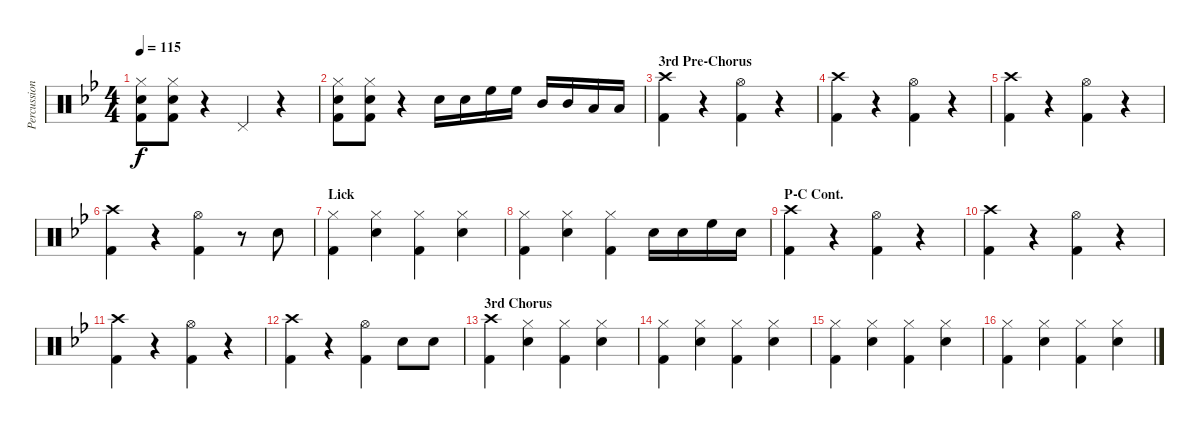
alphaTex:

\track ("Percussion" "Percussion") {instrument percussion}
\staff {score}
\articulation defaults
\ts (4 4)
\tempo 115
\clef neutral
\ks bb
("Hi-Hat (closed)" "Snare (hit) 2" "Kick (hit) 2").8{dy f} ("Hi-Hat (closed)" "Snare (hit) 2" "Kick (hit) 2").8 r.4 "Pedal Hi-Hat (hit)".4 r.4 |
("Hi-Hat (closed)" "Snare (hit) 2" "Kick (hit) 2").8 ("Hi-Hat (closed)" "Snare (hit) 2" "Kick (hit) 2").8 r.4 "Snare (hit) 2".16 "Snare (hit) 2".16 "High Floor Tom (hit)".16 "High Floor Tom (hit)".16 "Mid Tom (hit)".16 "Mid Tom (hit)".16 "Low Tom (hit)".16 "Low Tom (hit)".16 |
\section ("" "3rd Pre-Chorus")
("Crash high (hit)" "Kick (hit) 2").4 r.4 ("Hi-Hat (open)" "Kick (hit) 2").4 r.4 |
("Crash high (hit)" "Kick (hit) 2").4 r.4 ("Hi-Hat (open)" "Kick (hit) 2").4 r.4 |
("Crash high (hit)" "Kick (hit) 2").4 r.4 ("Hi-Hat (open)" "Kick (hit) 2").4 r.4 |
("Crash high (hit)" "Kick (hit) 2").4 r.4 ("Hi-Hat (open)" "Kick (hit) 2").4 r.8 "Snare (hit) 2".8 |
\section ("" "Lick")
("Hi-Hat (closed)" "Kick (hit) 2").4 ("Hi-Hat (closed)" "Snare (hit) 2").4 ("Hi-Hat (closed)" "Kick (hit) 2").4 ("Hi-Hat (closed)" "Snare (hit) 2").4 |
("Hi-Hat (closed)" "Kick (hit) 2").4 ("Hi-Hat (closed)" "Snare (hit) 2").4 ("Hi-Hat (closed)" "Kick (hit) 2").4 "Snare (hit) 2".16 "Snare (hit) 2".16 "High Floor Tom (hit)".16 "Snare (hit) 2".16 |
\section ("" "P-C Cont.")
("Crash high (hit)" "Kick (hit) 2").4 r.4 ("Hi-Hat (open)" "Kick (hit) 2").4 r.4 |
("Crash high (hit)" "Kick (hit) 2").4 r.4 ("Hi-Hat (open)" "Kick (hit) 2").4 r.4 |
("Crash high (hit)" "Kick (hit) 2").4 r.4 ("Hi-Hat (open)" "Kick (hit) 2").4 r.4 |
("Crash high (hit)" "Kick (hit) 2").4 r.4 ("Hi-Hat (open)" "Kick (hit) 2").4 "Snare (hit) 2".8 "Snare (hit) 2".8 |
\section ("" "3rd Chorus")
("Crash high (hit)" "Kick (hit) 2").4 ("Hi-Hat (closed)" "Snare (hit) 2").4 ("Hi-Hat (closed)" "Kick (hit) 2").4 ("Hi-Hat (closed)" "Snare (hit) 2").4 |
("Hi-Hat (closed)" "Kick (hit) 2").4 ("Hi-Hat (closed)" "Snare (hit) 2").4 ("Hi-Hat (closed)" "Kick (hit) 2").4 ("Hi-Hat (closed)" "Snare (hit) 2").4 |
("Hi-Hat (closed)" "Kick (hit) 2").4 ("Hi-Hat (closed)" "Snare (hit) 2").4 ("Hi-Hat (closed)" "Kick (hit) 2").4 ("Hi-Hat (closed)" "Snare (hit) 2").4 |
("Hi-Hat (closed)" "Kick (hit) 2").4 ("Hi-Hat (closed)" "Snare (hit) 2").4 ("Hi-Hat (closed)" "Kick (hit) 2").4 ("Hi-Hat (closed)" "Snare (hit) 2").4
